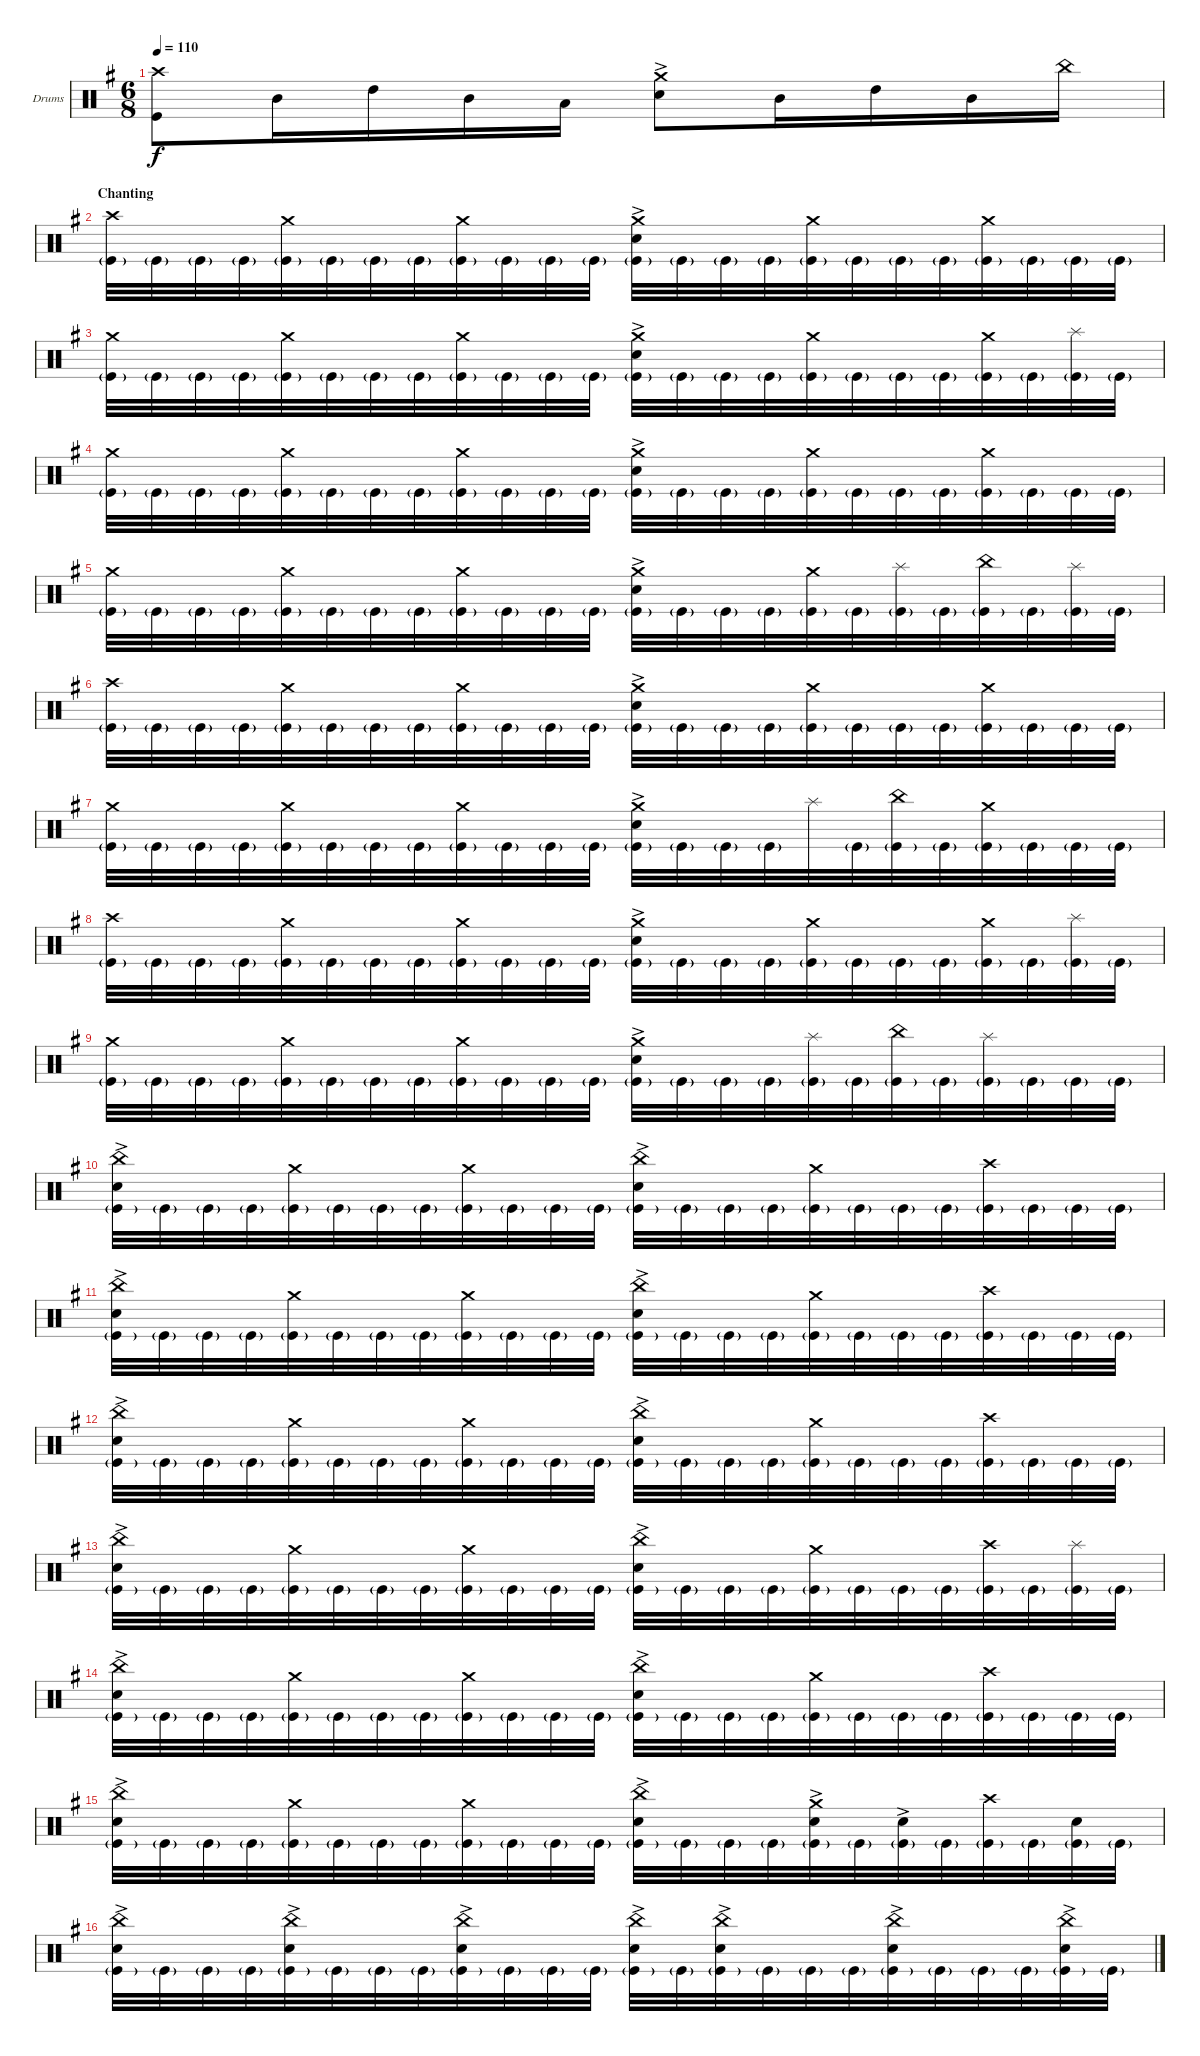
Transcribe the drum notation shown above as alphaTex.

\bracketExtendMode groupsimilarinstruments
\firstSystemTrackNameOrientation horizontal
\otherSystemsTrackNameOrientation horizontal
\track ("Drumkit" "Drums") {instrument percussion}
\staff {score}
\articulation defaults
\ts (6 8)
\tempo 110
\clef neutral
\ks eminor
("Kick (hit)" "Crash high (hit)").8{dy f} "Mid Tom (hit)".16 "High Tom (hit)".16 "Mid Tom (hit)".16 "Low Tom (hit)".16 ("Snare (hit) 2"{ac} "Crash medium (hit)").8 "Mid Tom (hit)".16 "High Tom (hit)".16 "Mid Tom (hit)".16 "China (hit)".16 |
\section ("" "Chanting")
("Kick (hit)"{g} "Crash high (hit)").32 "Kick (hit)"{g}.32 "Kick (hit)"{g}.32 "Kick (hit)"{g}.32 ("Kick (hit)"{g} "Crash medium (hit)").32 "Kick (hit)"{g}.32 "Kick (hit)"{g}.32 "Kick (hit)"{g}.32 ("Kick (hit)"{g} "Crash medium (hit)").32 "Kick (hit)"{g}.32 "Kick (hit)"{g}.32 "Kick (hit)"{g}.32 ("Kick (hit)"{g} "Crash medium (hit)" "Snare (hit) 2"{ac}).32 "Kick (hit)"{g}.32 "Kick (hit)"{g}.32 "Kick (hit)"{g}.32 ("Kick (hit)"{g} "Crash medium (hit)").32 "Kick (hit)"{g}.32 "Kick (hit)"{g}.32 "Kick (hit)"{g}.32 ("Kick (hit)"{g} "Crash medium (hit)").32 "Kick (hit)"{g}.32 "Kick (hit)"{g}.32 "Kick (hit)"{g}.32 |
("Kick (hit)"{g} "Crash medium (hit)").32 "Kick (hit)"{g}.32 "Kick (hit)"{g}.32 "Kick (hit)"{g}.32 ("Kick (hit)"{g} "Crash medium (hit)").32 "Kick (hit)"{g}.32 "Kick (hit)"{g}.32 "Kick (hit)"{g}.32 ("Kick (hit)"{g} "Crash medium (hit)").32 "Kick (hit)"{g}.32 "Kick (hit)"{g}.32 "Kick (hit)"{g}.32 ("Kick (hit)"{g} "Crash medium (hit)" "Snare (hit) 2"{ac}).32 "Kick (hit)"{g}.32 "Kick (hit)"{g}.32 "Kick (hit)"{g}.32 ("Kick (hit)"{g} "Crash medium (hit)").32 "Kick (hit)"{g}.32 "Kick (hit)"{g}.32 "Kick (hit)"{g}.32 ("Kick (hit)"{g} "Crash medium (hit)").32 "Kick (hit)"{g}.32 ("Kick (hit)"{g} "Splash (hit)").32 "Kick (hit)"{g}.32 |
("Kick (hit)"{g} "Crash medium (hit)").32 "Kick (hit)"{g}.32 "Kick (hit)"{g}.32 "Kick (hit)"{g}.32 ("Kick (hit)"{g} "Crash medium (hit)").32 "Kick (hit)"{g}.32 "Kick (hit)"{g}.32 "Kick (hit)"{g}.32 ("Kick (hit)"{g} "Crash medium (hit)").32 "Kick (hit)"{g}.32 "Kick (hit)"{g}.32 "Kick (hit)"{g}.32 ("Kick (hit)"{g} "Crash medium (hit)" "Snare (hit) 2"{ac}).32 "Kick (hit)"{g}.32 "Kick (hit)"{g}.32 "Kick (hit)"{g}.32 ("Kick (hit)"{g} "Crash medium (hit)").32 "Kick (hit)"{g}.32 "Kick (hit)"{g}.32 "Kick (hit)"{g}.32 ("Kick (hit)"{g} "Crash medium (hit)").32 "Kick (hit)"{g}.32 "Kick (hit)"{g}.32 "Kick (hit)"{g}.32 |
("Kick (hit)"{g} "Crash medium (hit)").32 "Kick (hit)"{g}.32 "Kick (hit)"{g}.32 "Kick (hit)"{g}.32 ("Kick (hit)"{g} "Crash medium (hit)").32 "Kick (hit)"{g}.32 "Kick (hit)"{g}.32 "Kick (hit)"{g}.32 ("Kick (hit)"{g} "Crash medium (hit)").32 "Kick (hit)"{g}.32 "Kick (hit)"{g}.32 "Kick (hit)"{g}.32 ("Kick (hit)"{g} "Crash medium (hit)" "Snare (hit) 2"{ac}).32 "Kick (hit)"{g}.32 "Kick (hit)"{g}.32 "Kick (hit)"{g}.32 ("Kick (hit)"{g} "Crash medium (hit)").32 "Kick (hit)"{g}.32 ("Kick (hit)"{g} "Splash (hit)").32 "Kick (hit)"{g}.32 ("Kick (hit)"{g} "China (hit)").32 "Kick (hit)"{g}.32 ("Kick (hit)"{g} "Splash (hit)").32 "Kick (hit)"{g}.32 |
("Kick (hit)"{g} "Crash high (hit)").32 "Kick (hit)"{g}.32 "Kick (hit)"{g}.32 "Kick (hit)"{g}.32 ("Kick (hit)"{g} "Crash medium (hit)").32 "Kick (hit)"{g}.32 "Kick (hit)"{g}.32 "Kick (hit)"{g}.32 ("Kick (hit)"{g} "Crash medium (hit)").32 "Kick (hit)"{g}.32 "Kick (hit)"{g}.32 "Kick (hit)"{g}.32 ("Kick (hit)"{g} "Crash medium (hit)" "Snare (hit) 2"{ac}).32 "Kick (hit)"{g}.32 "Kick (hit)"{g}.32 "Kick (hit)"{g}.32 ("Kick (hit)"{g} "Crash medium (hit)").32 "Kick (hit)"{g}.32 "Kick (hit)"{g}.32 "Kick (hit)"{g}.32 ("Kick (hit)"{g} "Crash medium (hit)").32 "Kick (hit)"{g}.32 "Kick (hit)"{g}.32 "Kick (hit)"{g}.32 |
("Kick (hit)"{g} "Crash medium (hit)").32 "Kick (hit)"{g}.32 "Kick (hit)"{g}.32 "Kick (hit)"{g}.32 ("Kick (hit)"{g} "Crash medium (hit)").32 "Kick (hit)"{g}.32 "Kick (hit)"{g}.32 "Kick (hit)"{g}.32 ("Kick (hit)"{g} "Crash medium (hit)").32 "Kick (hit)"{g}.32 "Kick (hit)"{g}.32 "Kick (hit)"{g}.32 ("Kick (hit)"{g} "Crash medium (hit)" "Snare (hit) 2"{ac}).32 "Kick (hit)"{g}.32 "Kick (hit)"{g}.32 "Kick (hit)"{g}.32 "Splash (hit)".32 "Kick (hit)"{g}.32 ("Kick (hit)"{g} "China (hit)").32 "Kick (hit)"{g}.32 ("Kick (hit)"{g} "Crash medium (hit)").32 "Kick (hit)"{g}.32 "Kick (hit)"{g}.32 "Kick (hit)"{g}.32 |
("Kick (hit)"{g} "Crash high (hit)").32 "Kick (hit)"{g}.32 "Kick (hit)"{g}.32 "Kick (hit)"{g}.32 ("Kick (hit)"{g} "Crash medium (hit)").32 "Kick (hit)"{g}.32 "Kick (hit)"{g}.32 "Kick (hit)"{g}.32 ("Kick (hit)"{g} "Crash medium (hit)").32 "Kick (hit)"{g}.32 "Kick (hit)"{g}.32 "Kick (hit)"{g}.32 ("Kick (hit)"{g} "Crash medium (hit)" "Snare (hit) 2"{ac}).32 "Kick (hit)"{g}.32 "Kick (hit)"{g}.32 "Kick (hit)"{g}.32 ("Kick (hit)"{g} "Crash medium (hit)").32 "Kick (hit)"{g}.32 "Kick (hit)"{g}.32 "Kick (hit)"{g}.32 ("Kick (hit)"{g} "Crash medium (hit)").32 "Kick (hit)"{g}.32 ("Kick (hit)"{g} "Splash (hit)").32 "Kick (hit)"{g}.32 |
("Kick (hit)"{g} "Crash medium (hit)").32 "Kick (hit)"{g}.32 "Kick (hit)"{g}.32 "Kick (hit)"{g}.32 ("Kick (hit)"{g} "Crash medium (hit)").32 "Kick (hit)"{g}.32 "Kick (hit)"{g}.32 "Kick (hit)"{g}.32 ("Kick (hit)"{g} "Crash medium (hit)").32 "Kick (hit)"{g}.32 "Kick (hit)"{g}.32 "Kick (hit)"{g}.32 ("Kick (hit)"{g} "Crash medium (hit)" "Snare (hit) 2"{ac}).32 "Kick (hit)"{g}.32 "Kick (hit)"{g}.32 "Kick (hit)"{g}.32 ("Kick (hit)"{g} "Splash (hit)").32 "Kick (hit)"{g}.32 ("Kick (hit)"{g} "China (hit)").32 "Kick (hit)"{g}.32 ("Kick (hit)"{g} "Splash (hit)").32 "Kick (hit)"{g}.32 "Kick (hit)"{g}.32 "Kick (hit)"{g}.32 |
("Kick (hit)"{g} "Snare (hit) 2"{ac} "China (hit)").32 "Kick (hit)"{g}.32 "Kick (hit)"{g}.32 "Kick (hit)"{g}.32 ("Kick (hit)"{g} "Crash medium (hit)").32 "Kick (hit)"{g}.32 "Kick (hit)"{g}.32 "Kick (hit)"{g}.32 ("Kick (hit)"{g} "Crash medium (hit)").32 "Kick (hit)"{g}.32 "Kick (hit)"{g}.32 "Kick (hit)"{g}.32 ("Kick (hit)"{g} "Snare (hit) 2"{ac} "China (hit)").32 "Kick (hit)"{g}.32 "Kick (hit)"{g}.32 "Kick (hit)"{g}.32 ("Kick (hit)"{g} "Crash medium (hit)").32 "Kick (hit)"{g}.32 "Kick (hit)"{g}.32 "Kick (hit)"{g}.32 ("Kick (hit)"{g} "Crash high (hit)").32 "Kick (hit)"{g}.32 "Kick (hit)"{g}.32 "Kick (hit)"{g}.32 |
("Kick (hit)"{g} "Snare (hit) 2"{ac} "China (hit)").32 "Kick (hit)"{g}.32 "Kick (hit)"{g}.32 "Kick (hit)"{g}.32 ("Kick (hit)"{g} "Crash medium (hit)").32 "Kick (hit)"{g}.32 "Kick (hit)"{g}.32 "Kick (hit)"{g}.32 ("Kick (hit)"{g} "Crash medium (hit)").32 "Kick (hit)"{g}.32 "Kick (hit)"{g}.32 "Kick (hit)"{g}.32 ("Kick (hit)"{g} "Snare (hit) 2"{ac} "China (hit)").32 "Kick (hit)"{g}.32 "Kick (hit)"{g}.32 "Kick (hit)"{g}.32 ("Kick (hit)"{g} "Crash medium (hit)").32 "Kick (hit)"{g}.32 "Kick (hit)"{g}.32 "Kick (hit)"{g}.32 ("Kick (hit)"{g} "Crash high (hit)").32 "Kick (hit)"{g}.32 "Kick (hit)"{g}.32 "Kick (hit)"{g}.32 |
("Kick (hit)"{g} "Snare (hit) 2"{ac} "China (hit)").32 "Kick (hit)"{g}.32 "Kick (hit)"{g}.32 "Kick (hit)"{g}.32 ("Kick (hit)"{g} "Crash medium (hit)").32 "Kick (hit)"{g}.32 "Kick (hit)"{g}.32 "Kick (hit)"{g}.32 ("Kick (hit)"{g} "Crash medium (hit)").32 "Kick (hit)"{g}.32 "Kick (hit)"{g}.32 "Kick (hit)"{g}.32 ("Kick (hit)"{g} "Snare (hit) 2"{ac} "China (hit)").32 "Kick (hit)"{g}.32 "Kick (hit)"{g}.32 "Kick (hit)"{g}.32 ("Kick (hit)"{g} "Crash medium (hit)").32 "Kick (hit)"{g}.32 "Kick (hit)"{g}.32 "Kick (hit)"{g}.32 ("Kick (hit)"{g} "Crash high (hit)").32 "Kick (hit)"{g}.32 "Kick (hit)"{g}.32 "Kick (hit)"{g}.32 |
("Kick (hit)"{g} "Snare (hit) 2"{ac} "China (hit)").32 "Kick (hit)"{g}.32 "Kick (hit)"{g}.32 "Kick (hit)"{g}.32 ("Kick (hit)"{g} "Crash medium (hit)").32 "Kick (hit)"{g}.32 "Kick (hit)"{g}.32 "Kick (hit)"{g}.32 ("Kick (hit)"{g} "Crash medium (hit)").32 "Kick (hit)"{g}.32 "Kick (hit)"{g}.32 "Kick (hit)"{g}.32 ("Kick (hit)"{g} "Snare (hit) 2"{ac} "China (hit)").32 "Kick (hit)"{g}.32 "Kick (hit)"{g}.32 "Kick (hit)"{g}.32 ("Kick (hit)"{g} "Crash medium (hit)").32 "Kick (hit)"{g}.32 "Kick (hit)"{g}.32 "Kick (hit)"{g}.32 ("Kick (hit)"{g} "Crash high (hit)").32 "Kick (hit)"{g}.32 ("Kick (hit)"{g} "Splash (hit)").32 "Kick (hit)"{g}.32 |
("Kick (hit)"{g} "Snare (hit) 2"{ac} "China (hit)").32 "Kick (hit)"{g}.32 "Kick (hit)"{g}.32 "Kick (hit)"{g}.32 ("Kick (hit)"{g} "Crash medium (hit)").32 "Kick (hit)"{g}.32 "Kick (hit)"{g}.32 "Kick (hit)"{g}.32 ("Kick (hit)"{g} "Crash medium (hit)").32 "Kick (hit)"{g}.32 "Kick (hit)"{g}.32 "Kick (hit)"{g}.32 ("Kick (hit)"{g} "Snare (hit) 2"{ac} "China (hit)").32 "Kick (hit)"{g}.32 "Kick (hit)"{g}.32 "Kick (hit)"{g}.32 ("Kick (hit)"{g} "Crash medium (hit)").32 "Kick (hit)"{g}.32 "Kick (hit)"{g}.32 "Kick (hit)"{g}.32 ("Kick (hit)"{g} "Crash high (hit)").32 "Kick (hit)"{g}.32 "Kick (hit)"{g}.32 "Kick (hit)"{g}.32 |
("Kick (hit)"{g} "Snare (hit) 2"{ac} "China (hit)").32 "Kick (hit)"{g}.32 "Kick (hit)"{g}.32 "Kick (hit)"{g}.32 ("Kick (hit)"{g} "Crash medium (hit)").32 "Kick (hit)"{g}.32 "Kick (hit)"{g}.32 "Kick (hit)"{g}.32 ("Kick (hit)"{g} "Crash medium (hit)").32 "Kick (hit)"{g}.32 "Kick (hit)"{g}.32 "Kick (hit)"{g}.32 ("Kick (hit)"{g} "Snare (hit) 2"{ac} "China (hit)").32 "Kick (hit)"{g}.32 "Kick (hit)"{g}.32 "Kick (hit)"{g}.32 ("Kick (hit)"{g} "Crash medium (hit)" "Snare (hit) 2"{ac}).32 "Kick (hit)"{g}.32 ("Kick (hit)"{g} "Snare (hit) 2"{ac}).32 "Kick (hit)"{g}.32 ("Kick (hit)"{g} "Crash high (hit)").32 "Kick (hit)"{g}.32 ("Kick (hit)"{g} "Snare (hit) 2").32 "Kick (hit)"{g}.32 |
("Kick (hit)"{g} "Snare (hit) 2"{ac} "China (hit)").32 "Kick (hit)"{g}.32 "Kick (hit)"{g}.32 "Kick (hit)"{g}.32 ("Kick (hit)"{g} "Snare (hit) 2"{ac} "China (hit)").32 "Kick (hit)"{g}.32 "Kick (hit)"{g}.32 "Kick (hit)"{g}.32 ("Kick (hit)"{g} "Snare (hit) 2"{ac} "China (hit)").32 "Kick (hit)"{g}.32 "Kick (hit)"{g}.32 "Kick (hit)"{g}.32 ("Kick (hit)"{g} "Snare (hit) 2"{ac} "China (hit)").32 "Kick (hit)"{g}.32 ("Kick (hit)"{g} "Snare (hit) 2"{ac} "China (hit)").32 "Kick (hit)"{g}.32 "Kick (hit)"{g}.32 "Kick (hit)"{g}.32 ("Kick (hit)"{g} "Snare (hit) 2"{ac} "China (hit)").32 "Kick (hit)"{g}.32 "Kick (hit)"{g}.32 "Kick (hit)"{g}.32 ("Kick (hit)"{g} "Snare (hit) 2"{ac} "China (hit)").32 "Kick (hit)"{g}.32
